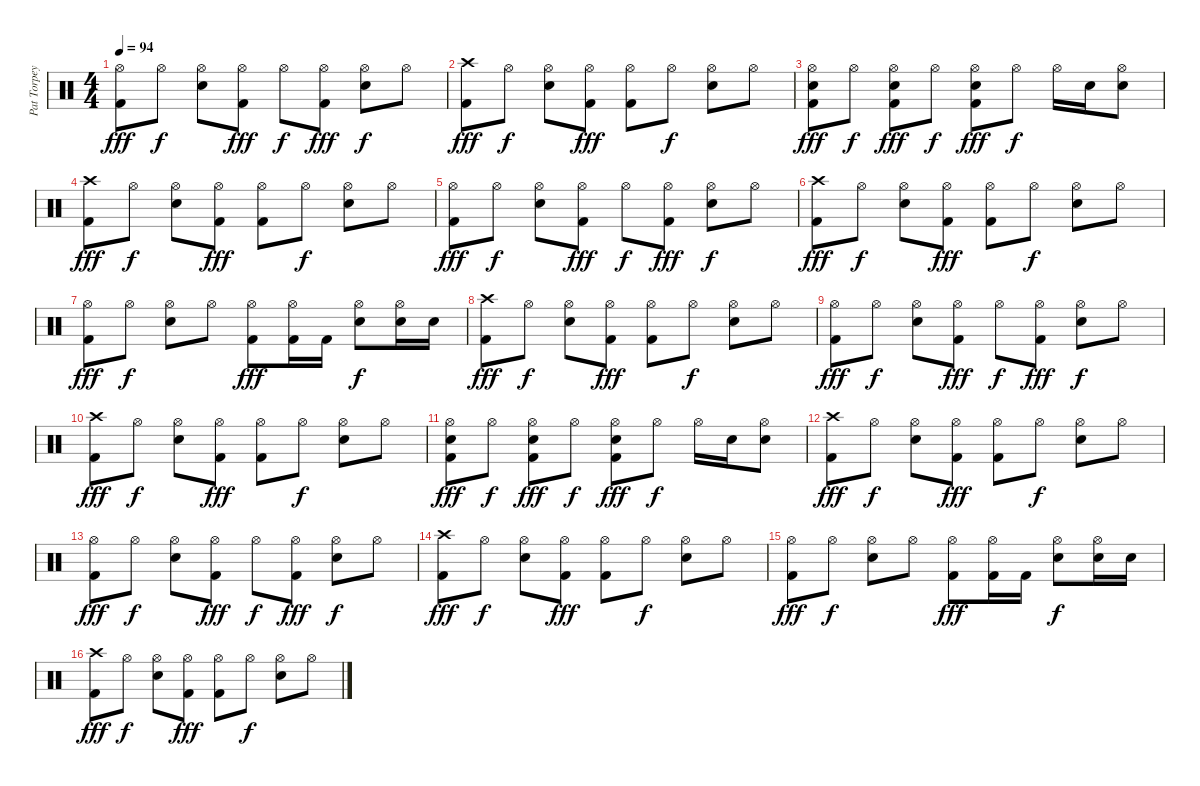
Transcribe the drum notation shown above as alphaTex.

\track ("Pat Torpey (Toro)" "Pat Torpey") {instrument percussion}
\staff {score}
\articulation defaults
\ts (4 4)
\tempo 94
\clef neutral
\ks c
("Hi-Hat (open)" "Kick (hit) 2").8{dy fff} "Hi-Hat (open)".8{dy f} ("Hi-Hat (open)" "Snare (hit) 2").8 ("Hi-Hat (open)" "Kick (hit) 2").8{dy fff} "Hi-Hat (open)".8{dy f} ("Hi-Hat (open)" "Kick (hit) 2").8{dy fff} ("Hi-Hat (open)" "Snare (hit) 2").8{dy f} "Hi-Hat (open)".8 |
("Crash high (hit)" "Kick (hit) 2").8{dy fff} "Hi-Hat (open)".8{dy f} ("Hi-Hat (open)" "Snare (hit) 2").8 ("Hi-Hat (open)" "Kick (hit) 2").8{dy fff} ("Hi-Hat (open)" "Kick (hit) 2").8 "Hi-Hat (open)".8{dy f} ("Hi-Hat (open)" "Snare (hit) 2").8 "Hi-Hat (open)".8 |
("Hi-Hat (open)" "Snare (hit) 2" "Kick (hit) 2").8{dy fff} "Hi-Hat (open)".8{dy f} ("Hi-Hat (open)" "Snare (hit) 2" "Kick (hit) 2").8{dy fff} "Hi-Hat (open)".8{dy f} ("Hi-Hat (open)" "Snare (hit) 2" "Kick (hit) 2").8{dy fff} "Hi-Hat (open)".8{dy f} "Hi-Hat (open)".16 "Snare (hit) 2".16 ("Hi-Hat (open)" "Snare (hit) 2").8 |
("Crash high (hit)" "Kick (hit) 2").8{dy fff} "Hi-Hat (open)".8{dy f} ("Hi-Hat (open)" "Snare (hit) 2").8 ("Hi-Hat (open)" "Kick (hit) 2").8{dy fff} ("Hi-Hat (open)" "Kick (hit) 2").8 "Hi-Hat (open)".8{dy f} ("Hi-Hat (open)" "Snare (hit) 2").8 "Hi-Hat (open)".8 |
("Hi-Hat (open)" "Kick (hit) 2").8{dy fff} "Hi-Hat (open)".8{dy f} ("Hi-Hat (open)" "Snare (hit) 2").8 ("Hi-Hat (open)" "Kick (hit) 2").8{dy fff} "Hi-Hat (open)".8{dy f} ("Hi-Hat (open)" "Kick (hit) 2").8{dy fff} ("Hi-Hat (open)" "Snare (hit) 2").8{dy f} "Hi-Hat (open)".8 |
("Crash high (hit)" "Kick (hit) 2").8{dy fff} "Hi-Hat (open)".8{dy f} ("Hi-Hat (open)" "Snare (hit) 2").8 ("Hi-Hat (open)" "Kick (hit) 2").8{dy fff} ("Hi-Hat (open)" "Kick (hit) 2").8 "Hi-Hat (open)".8{dy f} ("Hi-Hat (open)" "Snare (hit) 2").8 "Hi-Hat (open)".8 |
("Hi-Hat (open)" "Kick (hit) 2").8{dy fff} "Hi-Hat (open)".8{dy f} ("Hi-Hat (open)" "Snare (hit) 2").8 "Hi-Hat (open)".8 ("Hi-Hat (open)" "Kick (hit) 2").8{dy fff} ("Hi-Hat (open)" "Kick (hit) 2").16 "Kick (hit) 2".16 ("Hi-Hat (open)" "Snare (hit) 2").8{dy f} ("Hi-Hat (open)" "Snare (hit) 2").16 "Snare (hit) 2".16 |
("Crash high (hit)" "Kick (hit) 2").8{dy fff volume 12} "Hi-Hat (open)".8{dy f} ("Hi-Hat (open)" "Snare (hit) 2").8 ("Hi-Hat (open)" "Kick (hit) 2").8{dy fff} ("Hi-Hat (open)" "Kick (hit) 2").8 "Hi-Hat (open)".8{dy f} ("Hi-Hat (open)" "Snare (hit) 2").8 "Hi-Hat (open)".8 |
("Hi-Hat (open)" "Kick (hit) 2").8{dy fff} "Hi-Hat (open)".8{dy f} ("Hi-Hat (open)" "Snare (hit) 2").8 ("Hi-Hat (open)" "Kick (hit) 2").8{dy fff} "Hi-Hat (open)".8{dy f} ("Hi-Hat (open)" "Kick (hit) 2").8{dy fff} ("Hi-Hat (open)" "Snare (hit) 2").8{dy f} "Hi-Hat (open)".8 |
("Crash high (hit)" "Kick (hit) 2").8{dy fff volume 9} "Hi-Hat (open)".8{dy f} ("Hi-Hat (open)" "Snare (hit) 2").8 ("Hi-Hat (open)" "Kick (hit) 2").8{dy fff} ("Hi-Hat (open)" "Kick (hit) 2").8 "Hi-Hat (open)".8{dy f} ("Hi-Hat (open)" "Snare (hit) 2").8 "Hi-Hat (open)".8 |
("Hi-Hat (open)" "Snare (hit) 2" "Kick (hit) 2").8{dy fff} "Hi-Hat (open)".8{dy f} ("Hi-Hat (open)" "Snare (hit) 2" "Kick (hit) 2").8{dy fff} "Hi-Hat (open)".8{dy f} ("Hi-Hat (open)" "Snare (hit) 2" "Kick (hit) 2").8{dy fff} "Hi-Hat (open)".8{dy f} "Hi-Hat (open)".16 "Snare (hit) 2".16 ("Hi-Hat (open)" "Snare (hit) 2").8 |
("Crash high (hit)" "Kick (hit) 2").8{dy fff volume 7} "Hi-Hat (open)".8{dy f} ("Hi-Hat (open)" "Snare (hit) 2").8 ("Hi-Hat (open)" "Kick (hit) 2").8{dy fff} ("Hi-Hat (open)" "Kick (hit) 2").8 "Hi-Hat (open)".8{dy f} ("Hi-Hat (open)" "Snare (hit) 2").8 "Hi-Hat (open)".8 |
("Hi-Hat (open)" "Kick (hit) 2").8{dy fff} "Hi-Hat (open)".8{dy f} ("Hi-Hat (open)" "Snare (hit) 2").8 ("Hi-Hat (open)" "Kick (hit) 2").8{dy fff} "Hi-Hat (open)".8{dy f} ("Hi-Hat (open)" "Kick (hit) 2").8{dy fff} ("Hi-Hat (open)" "Snare (hit) 2").8{dy f} "Hi-Hat (open)".8 |
("Crash high (hit)" "Kick (hit) 2").8{dy fff volume 5} "Hi-Hat (open)".8{dy f} ("Hi-Hat (open)" "Snare (hit) 2").8 ("Hi-Hat (open)" "Kick (hit) 2").8{dy fff} ("Hi-Hat (open)" "Kick (hit) 2").8 "Hi-Hat (open)".8{dy f} ("Hi-Hat (open)" "Snare (hit) 2").8 "Hi-Hat (open)".8 |
("Hi-Hat (open)" "Kick (hit) 2").8{dy fff} "Hi-Hat (open)".8{dy f} ("Hi-Hat (open)" "Snare (hit) 2").8 "Hi-Hat (open)".8 ("Hi-Hat (open)" "Kick (hit) 2").8{dy fff} ("Hi-Hat (open)" "Kick (hit) 2").16 "Kick (hit) 2".16 ("Hi-Hat (open)" "Snare (hit) 2").8{dy f} ("Hi-Hat (open)" "Snare (hit) 2").16 "Snare (hit) 2".16 |
("Crash high (hit)" "Kick (hit) 2").8{dy fff volume 3} "Hi-Hat (open)".8{dy f} ("Hi-Hat (open)" "Snare (hit) 2").8 ("Hi-Hat (open)" "Kick (hit) 2").8{dy fff} ("Hi-Hat (open)" "Kick (hit) 2").8 "Hi-Hat (open)".8{dy f} ("Hi-Hat (open)" "Snare (hit) 2").8 "Hi-Hat (open)".8
